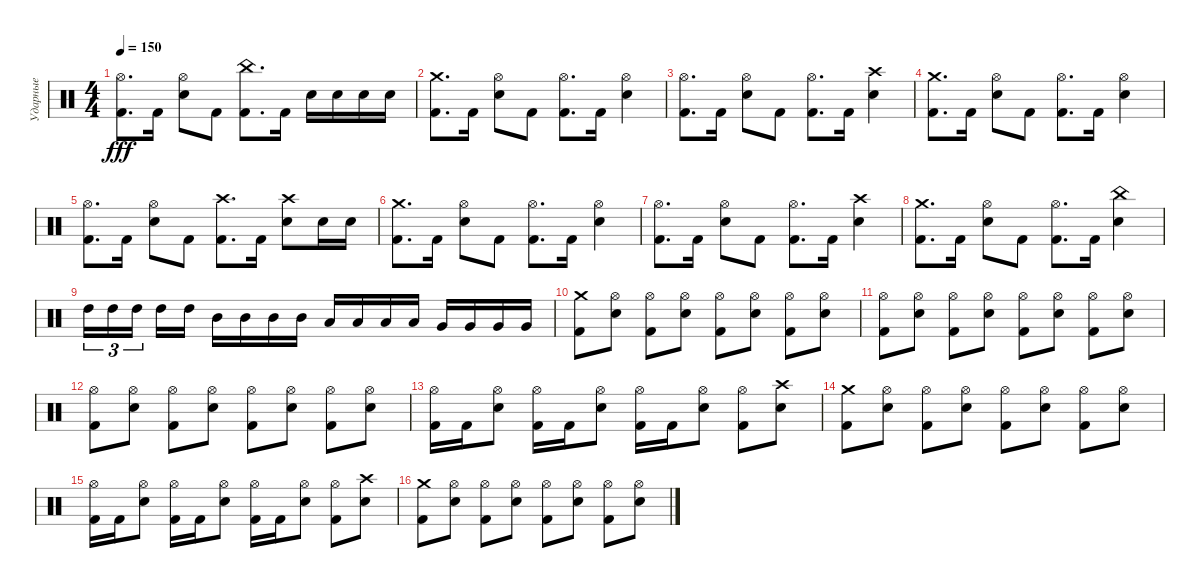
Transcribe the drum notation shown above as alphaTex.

\track ("Ударные" "Ударные") {instrument percussion}
\staff {score}
\articulation defaults
\ts (4 4)
\tempo 150
\clef neutral
\ks c
("Hi-Hat (open)" "Kick (hit) 2").8{d dy fff} "Kick (hit) 2".16 ("Hi-Hat (open)" "Electric Snare (hit)").8 "Kick (hit) 2".8 ("China (hit)" "Kick (hit) 2").8{d} "Kick (hit) 2".16 "Electric Snare (hit)".16 "Electric Snare (hit)".16 "Electric Snare (hit)".16 "Electric Snare (hit)".16 |
("Crash medium (hit)" "Kick (hit) 2").8{d} "Kick (hit) 2".16 ("Hi-Hat (open)" "Electric Snare (hit)").8 "Kick (hit) 2".8 ("Hi-Hat (open)" "Kick (hit) 2").8{d} "Kick (hit) 2".16 ("Hi-Hat (open)" "Electric Snare (hit)").4 |
("Hi-Hat (open)" "Kick (hit) 2").8{d} "Kick (hit) 2".16 ("Hi-Hat (open)" "Electric Snare (hit)").8 "Kick (hit) 2".8 ("Hi-Hat (open)" "Kick (hit) 2").8{d} "Kick (hit) 2".16 ("Crash high (hit)" "Electric Snare (hit)").4 |
("Crash medium (hit)" "Kick (hit) 2").8{d} "Kick (hit) 2".16 ("Hi-Hat (open)" "Electric Snare (hit)").8 "Kick (hit) 2".8 ("Hi-Hat (open)" "Kick (hit) 2").8{d} "Kick (hit) 2".16 ("Hi-Hat (open)" "Electric Snare (hit)").4 |
("Hi-Hat (open)" "Kick (hit) 2").8{d} "Kick (hit) 2".16 ("Hi-Hat (open)" "Electric Snare (hit)").8 "Kick (hit) 2".8 ("Crash high (hit)" "Kick (hit) 2").8{d} "Kick (hit) 2".16 ("Crash high (hit)" "Electric Snare (hit)").8 "Electric Snare (hit)".16 "Electric Snare (hit)".16 |
("Crash medium (hit)" "Kick (hit) 2").8{d} "Kick (hit) 2".16 ("Hi-Hat (open)" "Electric Snare (hit)").8 "Kick (hit) 2".8 ("Hi-Hat (open)" "Kick (hit) 2").8{d} "Kick (hit) 2".16 ("Hi-Hat (open)" "Electric Snare (hit)").4 |
("Hi-Hat (open)" "Kick (hit) 2").8{d} "Kick (hit) 2".16 ("Hi-Hat (open)" "Electric Snare (hit)").8 "Kick (hit) 2".8 ("Hi-Hat (open)" "Kick (hit) 2").8{d} "Kick (hit) 2".16 ("Crash high (hit)" "Electric Snare (hit)").4 |
("Crash medium (hit)" "Kick (hit) 2").8{d} "Kick (hit) 2".16 ("Hi-Hat (open)" "Electric Snare (hit)").8 "Kick (hit) 2".8 ("Hi-Hat (open)" "Kick (hit) 2").8{d} "Kick (hit) 2".16 ("China (hit)" "Electric Snare (hit)").4 |
"High Tom (hit)".16{tu (3 2)} "High Tom (hit)".16{tu (3 2)} "High Tom (hit)".16{tu (3 2) beam splitsecondary} "High Tom (hit)".16 "High Tom (hit)".16 "Mid Tom (hit)".16 "Mid Tom (hit)".16 "Mid Tom (hit)".16 "Mid Tom (hit)".16 "Low Tom (hit)".16 "Low Tom (hit)".16 "Low Tom (hit)".16 "Low Tom (hit)".16 "Very Low Tom (hit)".16 "Very Low Tom (hit)".16 "Very Low Tom (hit)".16 "Very Low Tom (hit)".16 |
("Crash medium (hit)" "Kick (hit) 2").8 ("Hi-Hat (open)" "Electric Snare (hit)").8 ("Hi-Hat (open)" "Kick (hit) 2").8 ("Hi-Hat (open)" "Electric Snare (hit)").8 ("Hi-Hat (open)" "Kick (hit) 2").8 ("Hi-Hat (open)" "Electric Snare (hit)").8 ("Hi-Hat (open)" "Kick (hit) 2").8 ("Hi-Hat (open)" "Electric Snare (hit)").8 |
("Hi-Hat (open)" "Kick (hit) 2").8 ("Hi-Hat (open)" "Electric Snare (hit)").8 ("Hi-Hat (open)" "Kick (hit) 2").8 ("Hi-Hat (open)" "Electric Snare (hit)").8 ("Hi-Hat (open)" "Kick (hit) 2").8 ("Hi-Hat (open)" "Electric Snare (hit)").8 ("Hi-Hat (open)" "Kick (hit) 2").8 ("Hi-Hat (open)" "Electric Snare (hit)").8 |
("Hi-Hat (open)" "Kick (hit) 2").8 ("Hi-Hat (open)" "Electric Snare (hit)").8 ("Hi-Hat (open)" "Kick (hit) 2").8 ("Hi-Hat (open)" "Electric Snare (hit)").8 ("Hi-Hat (open)" "Kick (hit) 2").8 ("Hi-Hat (open)" "Electric Snare (hit)").8 ("Hi-Hat (open)" "Kick (hit) 2").8 ("Hi-Hat (open)" "Electric Snare (hit)").8 |
("Hi-Hat (open)" "Kick (hit) 2").16 "Kick (hit) 2".16 ("Hi-Hat (open)" "Electric Snare (hit)").8 ("Hi-Hat (open)" "Kick (hit) 2").16 "Kick (hit) 2".16 ("Hi-Hat (open)" "Electric Snare (hit)").8 ("Hi-Hat (open)" "Kick (hit) 2").16 "Kick (hit) 2".16 ("Hi-Hat (open)" "Electric Snare (hit)").8 ("Hi-Hat (open)" "Kick (hit) 2").8 ("Crash high (hit)" "Electric Snare (hit)").8 |
("Crash medium (hit)" "Kick (hit) 2").8 ("Hi-Hat (open)" "Electric Snare (hit)").8 ("Hi-Hat (open)" "Kick (hit) 2").8 ("Hi-Hat (open)" "Electric Snare (hit)").8 ("Hi-Hat (open)" "Kick (hit) 2").8 ("Hi-Hat (open)" "Electric Snare (hit)").8 ("Hi-Hat (open)" "Kick (hit) 2").8 ("Hi-Hat (open)" "Electric Snare (hit)").8 |
("Hi-Hat (open)" "Kick (hit) 2").16 "Kick (hit) 2".16 ("Hi-Hat (open)" "Electric Snare (hit)").8 ("Hi-Hat (open)" "Kick (hit) 2").16 "Kick (hit) 2".16 ("Hi-Hat (open)" "Electric Snare (hit)").8 ("Hi-Hat (open)" "Kick (hit) 2").16 "Kick (hit) 2".16 ("Hi-Hat (open)" "Electric Snare (hit)").8 ("Hi-Hat (open)" "Kick (hit) 2").8 ("Crash high (hit)" "Electric Snare (hit)").8 |
("Crash medium (hit)" "Kick (hit) 2").8 ("Hi-Hat (open)" "Electric Snare (hit)").8 ("Hi-Hat (open)" "Kick (hit) 2").8 ("Hi-Hat (open)" "Electric Snare (hit)").8 ("Hi-Hat (open)" "Kick (hit) 2").8 ("Hi-Hat (open)" "Electric Snare (hit)").8 ("Hi-Hat (open)" "Kick (hit) 2").8 ("Hi-Hat (open)" "Electric Snare (hit)").8
